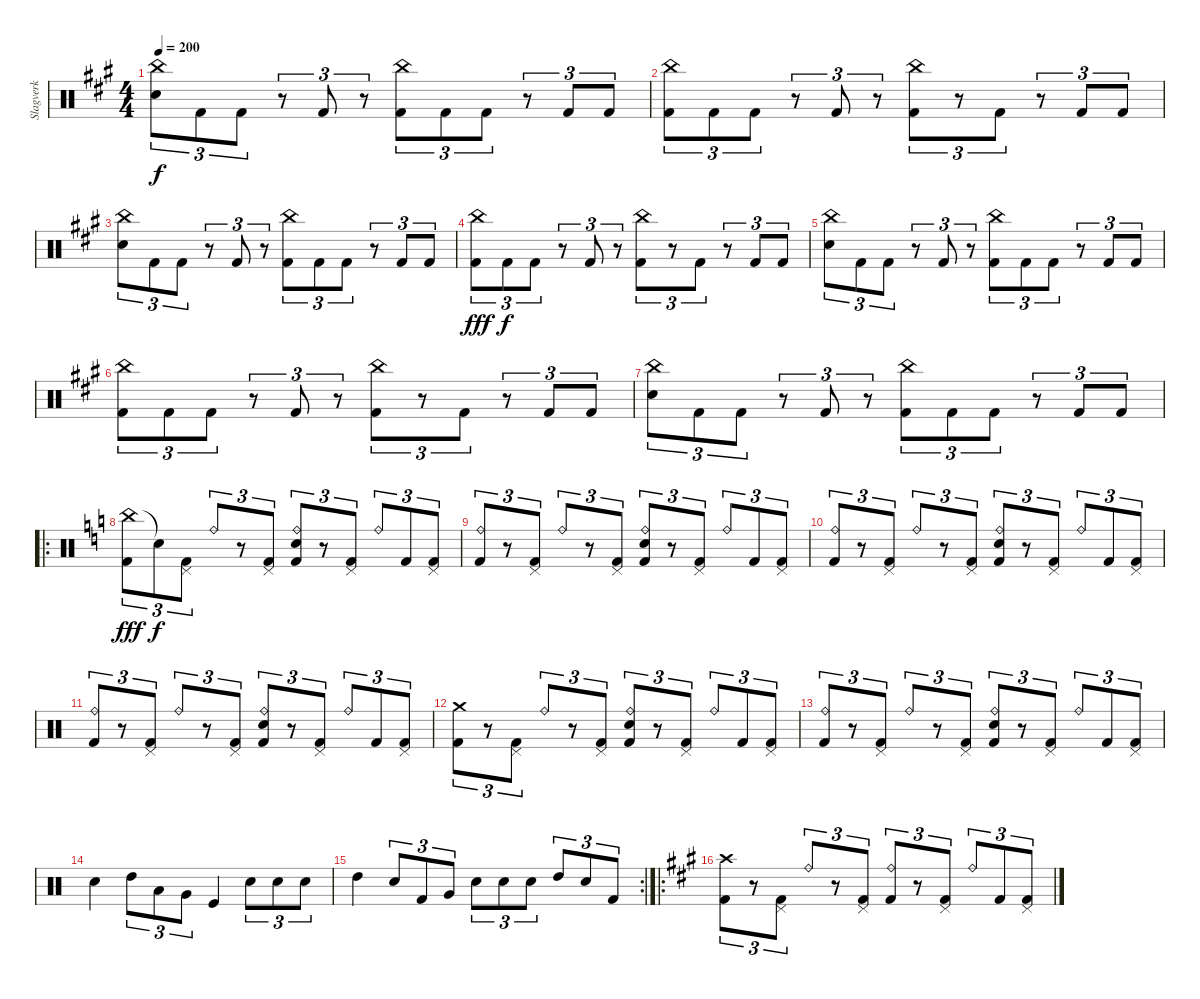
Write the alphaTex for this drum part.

\track ("Slagverk" "Slagverk") {instrument percussion}
\staff {score}
\articulation defaults
\ts (4 4)
\tempo 200
\clef neutral
\ks a
("China (hit)" "Snare (hit) 2").8{tu (3 2) dy f} "Kick (hit) 2".8{tu (3 2)} "Kick (hit) 2".8{tu (3 2)} r.8{tu (3 2)} "Kick (hit) 2".8{tu (3 2)} r.8{tu (3 2)} ("China (hit)" "Kick (hit) 2").8{tu (3 2)} "Kick (hit) 2".8{tu (3 2)} "Kick (hit) 2".8{tu (3 2)} r.8{tu (3 2)} "Kick (hit) 2".8{tu (3 2)} "Kick (hit) 2".8{tu (3 2)} |
("China (hit)" "Kick (hit) 2").8{tu (3 2)} "Kick (hit) 2".8{tu (3 2)} "Kick (hit) 2".8{tu (3 2)} r.8{tu (3 2)} "Kick (hit) 2".8{tu (3 2)} r.8{tu (3 2)} ("China (hit)" "Kick (hit) 2").8{tu (3 2)} r.8{tu (3 2)} "Kick (hit) 2".8{tu (3 2)} r.8{tu (3 2)} "Kick (hit) 2".8{tu (3 2)} "Kick (hit) 2".8{tu (3 2)} |
("China (hit)" "Snare (hit) 2").8{tu (3 2)} "Kick (hit) 2".8{tu (3 2)} "Kick (hit) 2".8{tu (3 2)} r.8{tu (3 2)} "Kick (hit) 2".8{tu (3 2)} r.8{tu (3 2)} ("China (hit)" "Kick (hit) 2").8{tu (3 2)} "Kick (hit) 2".8{tu (3 2)} "Kick (hit) 2".8{tu (3 2)} r.8{tu (3 2)} "Kick (hit) 2".8{tu (3 2)} "Kick (hit) 2".8{tu (3 2)} |
("China (hit)" "Kick (hit) 2").8{tu (3 2) dy fff} "Kick (hit) 2".8{tu (3 2) dy f} "Kick (hit) 2".8{tu (3 2)} r.8{tu (3 2)} "Kick (hit) 2".8{tu (3 2)} r.8{tu (3 2)} ("China (hit)" "Kick (hit) 2").8{tu (3 2)} r.8{tu (3 2)} "Kick (hit) 2".8{tu (3 2)} r.8{tu (3 2)} "Kick (hit) 2".8{tu (3 2)} "Kick (hit) 2".8{tu (3 2)} |
("China (hit)" "Snare (hit) 2").8{tu (3 2)} "Kick (hit) 2".8{tu (3 2)} "Kick (hit) 2".8{tu (3 2)} r.8{tu (3 2)} "Kick (hit) 2".8{tu (3 2)} r.8{tu (3 2)} ("China (hit)" "Kick (hit) 2").8{tu (3 2)} "Kick (hit) 2".8{tu (3 2)} "Kick (hit) 2".8{tu (3 2)} r.8{tu (3 2)} "Kick (hit) 2".8{tu (3 2)} "Kick (hit) 2".8{tu (3 2)} |
("China (hit)" "Kick (hit) 2").8{tu (3 2)} "Kick (hit) 2".8{tu (3 2)} "Kick (hit) 2".8{tu (3 2)} r.8{tu (3 2)} "Kick (hit) 2".8{tu (3 2)} r.8{tu (3 2)} ("China (hit)" "Kick (hit) 2").8{tu (3 2)} r.8{tu (3 2)} "Kick (hit) 2".8{tu (3 2)} r.8{tu (3 2)} "Kick (hit) 2".8{tu (3 2)} "Kick (hit) 2".8{tu (3 2)} |
("China (hit)" "Snare (hit) 2").8{tu (3 2)} "Kick (hit) 2".8{tu (3 2)} "Kick (hit) 2".8{tu (3 2)} r.8{tu (3 2)} "Kick (hit) 2".8{tu (3 2)} r.8{tu (3 2)} ("China (hit)" "Kick (hit) 2").8{tu (3 2)} "Kick (hit) 2".8{tu (3 2)} "Kick (hit) 2".8{tu (3 2)} r.8{tu (3 2)} "Kick (hit) 2".8{tu (3 2)} "Kick (hit) 2".8{tu (3 2)} |
\ro
\ks c
("China (hit)" "Kick (hit) 2").8{tu (3 2) dy fff} "Snare (hit)"{t}.8{tu (3 2) dy f} ("Pedal Hi-Hat (hit)" "Kick (hit) 2").8{tu (3 2)} "Ride (bell)".8{tu (3 2)} r.8{tu (3 2)} ("Pedal Hi-Hat (hit)" "Kick (hit) 2").8{tu (3 2)} ("Ride (bell)" "Snare (hit) 2" "Kick (hit) 2").8{tu (3 2)} r.8{tu (3 2)} ("Pedal Hi-Hat (hit)" "Kick (hit) 2").8{tu (3 2)} "Ride (bell)".8{tu (3 2)} "Kick (hit) 2".8{tu (3 2)} ("Pedal Hi-Hat (hit)" "Kick (hit) 2").8{tu (3 2)} |
("Ride (bell)" "Kick (hit) 2").8{tu (3 2)} r.8{tu (3 2)} ("Pedal Hi-Hat (hit)" "Kick (hit) 2").8{tu (3 2)} "Ride (bell)".8{tu (3 2)} r.8{tu (3 2)} ("Pedal Hi-Hat (hit)" "Kick (hit) 2").8{tu (3 2)} ("Ride (bell)" "Snare (hit) 2" "Kick (hit) 2").8{tu (3 2)} r.8{tu (3 2)} ("Pedal Hi-Hat (hit)" "Kick (hit) 2").8{tu (3 2)} "Ride (bell)".8{tu (3 2)} "Kick (hit) 2".8{tu (3 2)} ("Pedal Hi-Hat (hit)" "Kick (hit) 2").8{tu (3 2)} |
("Ride (bell)" "Kick (hit) 2").8{tu (3 2)} r.8{tu (3 2)} ("Pedal Hi-Hat (hit)" "Kick (hit) 2").8{tu (3 2)} "Ride (bell)".8{tu (3 2)} r.8{tu (3 2)} ("Pedal Hi-Hat (hit)" "Kick (hit) 2").8{tu (3 2)} ("Ride (bell)" "Snare (hit) 2" "Kick (hit) 2").8{tu (3 2)} r.8{tu (3 2)} ("Pedal Hi-Hat (hit)" "Kick (hit) 2").8{tu (3 2)} "Ride (bell)".8{tu (3 2)} "Kick (hit) 2".8{tu (3 2)} ("Pedal Hi-Hat (hit)" "Kick (hit) 2").8{tu (3 2)} |
("Ride (bell)" "Kick (hit) 2").8{tu (3 2)} r.8{tu (3 2)} ("Pedal Hi-Hat (hit)" "Kick (hit) 2").8{tu (3 2)} "Ride (bell)".8{tu (3 2)} r.8{tu (3 2)} ("Pedal Hi-Hat (hit)" "Kick (hit) 2").8{tu (3 2)} ("Ride (bell)" "Snare (hit) 2" "Kick (hit) 2").8{tu (3 2)} r.8{tu (3 2)} ("Pedal Hi-Hat (hit)" "Kick (hit) 2").8{tu (3 2)} "Ride (bell)".8{tu (3 2)} "Kick (hit) 2".8{tu (3 2)} ("Pedal Hi-Hat (hit)" "Kick (hit) 2").8{tu (3 2)} |
("Crash medium (hit)" "Kick (hit) 2").8{tu (3 2)} r.8{tu (3 2)} ("Pedal Hi-Hat (hit)" "Kick (hit) 2").8{tu (3 2)} "Ride (bell)".8{tu (3 2)} r.8{tu (3 2)} ("Pedal Hi-Hat (hit)" "Kick (hit) 2").8{tu (3 2)} ("Ride (bell)" "Snare (hit) 2" "Kick (hit) 2").8{tu (3 2)} r.8{tu (3 2)} ("Pedal Hi-Hat (hit)" "Kick (hit) 2").8{tu (3 2)} "Ride (bell)".8{tu (3 2)} "Kick (hit) 2".8{tu (3 2)} ("Pedal Hi-Hat (hit)" "Kick (hit) 2").8{tu (3 2)} |
("Ride (bell)" "Kick (hit) 2").8{tu (3 2)} r.8{tu (3 2)} ("Pedal Hi-Hat (hit)" "Kick (hit) 2").8{tu (3 2)} "Ride (bell)".8{tu (3 2)} r.8{tu (3 2)} ("Pedal Hi-Hat (hit)" "Kick (hit) 2").8{tu (3 2)} ("Ride (bell)" "Snare (hit) 2" "Kick (hit) 2").8{tu (3 2)} r.8{tu (3 2)} ("Pedal Hi-Hat (hit)" "Kick (hit) 2").8{tu (3 2)} "Ride (bell)".8{tu (3 2)} "Kick (hit) 2".8{tu (3 2)} ("Pedal Hi-Hat (hit)" "Kick (hit) 2").8{tu (3 2)} |
"Snare (hit) 2".4 "High Tom (hit)".8{tu (3 2)} "Low Tom (hit)".8{tu (3 2)} "Very Low Tom (hit)".8{tu (3 2)} "Kick (hit)".4 "Snare (hit) 2".8{tu (3 2)} "Snare (hit) 2".8{tu (3 2)} "Snare (hit) 2".8{tu (3 2)} |
\rc 2 "High Tom (hit)".4 "Snare (hit) 2".8{tu (3 2)} "Kick (hit) 2".8{tu (3 2)} "Very Low Tom (hit)".8{tu (3 2)} "Snare (hit) 2".8{tu (3 2)} "Snare (hit) 2".8{tu (3 2)} "Snare (hit) 2".8{tu (3 2)} "High Tom (hit)".8{tu (3 2)} "Snare (hit) 2".8{tu (3 2)} "Kick (hit) 2".8{tu (3 2)}
|
\ro
\ks a
("Crash high (hit)" "Kick (hit) 2").8{tu (3 2)} r.8{tu (3 2)} ("Pedal Hi-Hat (hit)" "Kick (hit) 2").8{tu (3 2)} "Ride (bell)".8{tu (3 2)} r.8{tu (3 2)} ("Pedal Hi-Hat (hit)" "Kick (hit) 2").8{tu (3 2)} ("Ride (bell)" "Kick (hit) 2").8{tu (3 2)} r.8{tu (3 2)} ("Pedal Hi-Hat (hit)" "Kick (hit) 2").8{tu (3 2)} "Ride (bell)".8{tu (3 2)} "Kick (hit) 2".8{tu (3 2)} ("Pedal Hi-Hat (hit)" "Kick (hit) 2").8{tu (3 2)}
